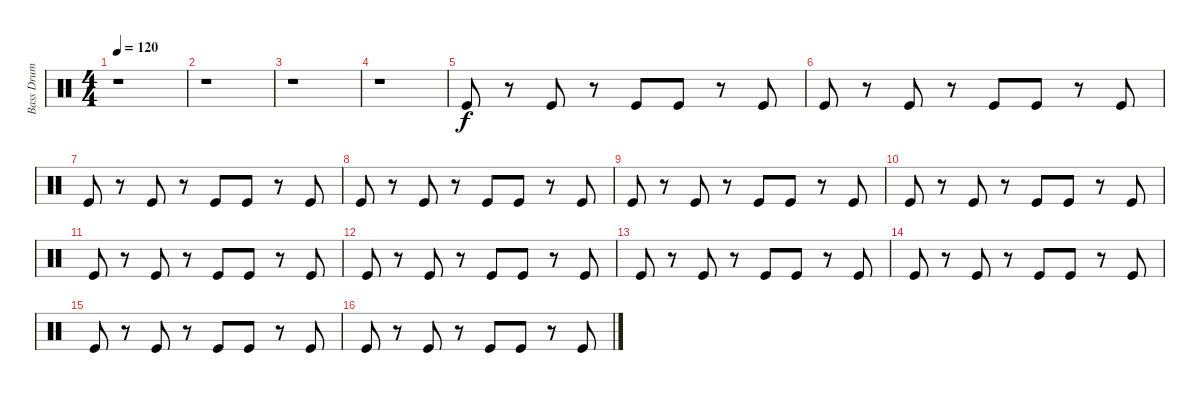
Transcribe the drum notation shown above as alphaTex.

\track ("Bass Drum           " "Bass Drum ") {instrument percussion}
\staff {score}
\articulation defaults
\ts (4 4)
\tempo 120
\clef neutral
\ks c
r.1{dy f} |
r.1 |
r.1 |
r.1 |
"Kick (hit)".8 r.8 "Kick (hit)".8 r.8 "Kick (hit)".8 "Kick (hit)".8 r.8 "Kick (hit)".8 |
"Kick (hit)".8 r.8 "Kick (hit)".8 r.8 "Kick (hit)".8 "Kick (hit)".8 r.8 "Kick (hit)".8 |
"Kick (hit)".8 r.8 "Kick (hit)".8 r.8 "Kick (hit)".8 "Kick (hit)".8 r.8 "Kick (hit)".8 |
"Kick (hit)".8 r.8 "Kick (hit)".8 r.8 "Kick (hit)".8 "Kick (hit)".8 r.8 "Kick (hit)".8 |
"Kick (hit)".8 r.8 "Kick (hit)".8 r.8 "Kick (hit)".8 "Kick (hit)".8 r.8 "Kick (hit)".8 |
"Kick (hit)".8 r.8 "Kick (hit)".8 r.8 "Kick (hit)".8 "Kick (hit)".8 r.8 "Kick (hit)".8 |
"Kick (hit)".8 r.8 "Kick (hit)".8 r.8 "Kick (hit)".8 "Kick (hit)".8 r.8 "Kick (hit)".8 |
"Kick (hit)".8 r.8 "Kick (hit)".8 r.8 "Kick (hit)".8 "Kick (hit)".8 r.8 "Kick (hit)".8 |
"Kick (hit)".8 r.8 "Kick (hit)".8 r.8 "Kick (hit)".8 "Kick (hit)".8 r.8 "Kick (hit)".8 |
"Kick (hit)".8 r.8 "Kick (hit)".8 r.8 "Kick (hit)".8 "Kick (hit)".8 r.8 "Kick (hit)".8 |
"Kick (hit)".8 r.8 "Kick (hit)".8 r.8 "Kick (hit)".8 "Kick (hit)".8 r.8 "Kick (hit)".8 |
"Kick (hit)".8 r.8 "Kick (hit)".8 r.8 "Kick (hit)".8 "Kick (hit)".8 r.8 "Kick (hit)".8
